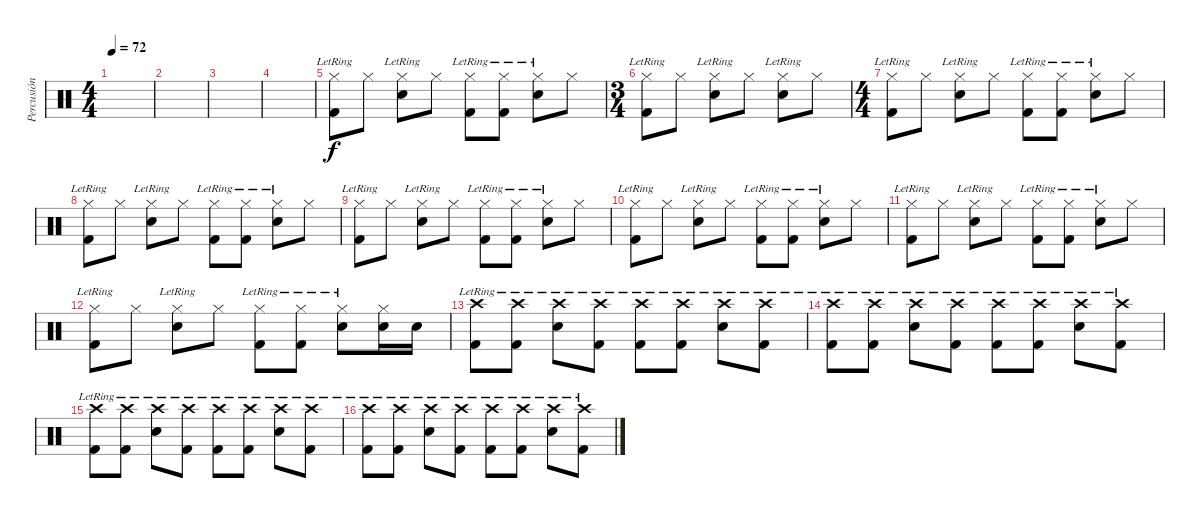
\track ("Percusión" "Percusión") {instrument percussion}
\staff {score}
\articulation defaults
\ts (4 4)
\tempo 72
\clef neutral
\ks c
|
|
|
|
("Hi-Hat (closed)" "Kick (hit) 2"{lr}).8 "Hi-Hat (closed)".8 ("Hi-Hat (closed)" "Electric Snare (hit)"{lr}).8 "Hi-Hat (closed)".8 ("Hi-Hat (closed)" "Kick (hit) 2"{lr}).8 ("Hi-Hat (closed)" "Kick (hit) 2"{lr}).8 ("Hi-Hat (closed)" "Electric Snare (hit)"{lr}).8 "Hi-Hat (closed)".8 |
\ts (3 4)
("Hi-Hat (closed)" "Kick (hit) 2"{lr}).8 "Hi-Hat (closed)".8 ("Hi-Hat (closed)" "Electric Snare (hit)"{lr}).8 "Hi-Hat (closed)".8 ("Hi-Hat (closed)" "Electric Snare (hit)"{lr}).8 "Hi-Hat (closed)".8 |
\ts (4 4)
("Hi-Hat (closed)" "Kick (hit) 2"{lr}).8 "Hi-Hat (closed)".8 ("Hi-Hat (closed)" "Electric Snare (hit)"{lr}).8 "Hi-Hat (closed)".8 ("Hi-Hat (closed)" "Kick (hit) 2"{lr}).8 ("Hi-Hat (closed)" "Kick (hit) 2"{lr}).8 ("Hi-Hat (closed)" "Electric Snare (hit)"{lr}).8 "Hi-Hat (closed)".8 |
("Hi-Hat (closed)" "Kick (hit) 2"{lr}).8 "Hi-Hat (closed)".8 ("Hi-Hat (closed)" "Electric Snare (hit)"{lr}).8 "Hi-Hat (closed)".8 ("Hi-Hat (closed)" "Kick (hit) 2"{lr}).8 ("Hi-Hat (closed)" "Kick (hit) 2"{lr}).8 ("Hi-Hat (closed)" "Electric Snare (hit)"{lr}).8 "Hi-Hat (closed)".8 |
("Hi-Hat (closed)" "Kick (hit) 2"{lr}).8 "Hi-Hat (closed)".8 ("Hi-Hat (closed)" "Electric Snare (hit)"{lr}).8 "Hi-Hat (closed)".8 ("Hi-Hat (closed)" "Kick (hit) 2"{lr}).8 ("Hi-Hat (closed)" "Kick (hit) 2"{lr}).8 ("Hi-Hat (closed)" "Electric Snare (hit)"{lr}).8 "Hi-Hat (closed)".8 |
("Hi-Hat (closed)" "Kick (hit) 2"{lr}).8 "Hi-Hat (closed)".8 ("Hi-Hat (closed)" "Electric Snare (hit)"{lr}).8 "Hi-Hat (closed)".8 ("Hi-Hat (closed)" "Kick (hit) 2"{lr}).8 ("Hi-Hat (closed)" "Kick (hit) 2"{lr}).8 ("Hi-Hat (closed)" "Electric Snare (hit)"{lr}).8 "Hi-Hat (closed)".8 |
("Hi-Hat (closed)" "Kick (hit) 2"{lr}).8 "Hi-Hat (closed)".8 ("Hi-Hat (closed)" "Electric Snare (hit)"{lr}).8 "Hi-Hat (closed)".8 ("Hi-Hat (closed)" "Kick (hit) 2"{lr}).8 ("Hi-Hat (closed)" "Kick (hit) 2"{lr}).8 ("Hi-Hat (closed)" "Electric Snare (hit)"{lr}).8 "Hi-Hat (closed)".8 |
("Hi-Hat (closed)" "Kick (hit) 2"{lr}).8 "Hi-Hat (closed)".8 ("Hi-Hat (closed)" "Electric Snare (hit)"{lr}).8 "Hi-Hat (closed)".8 ("Hi-Hat (closed)" "Kick (hit) 2"{lr}).8 ("Hi-Hat (closed)" "Kick (hit) 2"{lr}).8 ("Hi-Hat (closed)" "Electric Snare (hit)"{lr}).8 ("Hi-Hat (closed)" "Electric Snare (hit)").16 "Electric Snare (hit)".16 |
("Crash high (hit)"{lr} "Kick (hit) 2"{lr}).8 ("Crash high (hit)"{lr} "Kick (hit) 2"{lr}).8 ("Crash high (hit)"{lr} "Electric Snare (hit)"{lr}).8 ("Crash high (hit)"{lr} "Kick (hit) 2"{lr}).8 ("Crash high (hit)"{lr} "Kick (hit) 2"{lr}).8 ("Crash high (hit)"{lr} "Kick (hit) 2"{lr}).8 ("Crash high (hit)"{lr} "Electric Snare (hit)"{lr}).8 ("Crash high (hit)"{lr} "Kick (hit) 2"{lr}).8 |
("Crash high (hit)"{lr} "Kick (hit) 2"{lr}).8 ("Crash high (hit)"{lr} "Kick (hit) 2"{lr}).8 ("Crash high (hit)"{lr} "Electric Snare (hit)"{lr}).8 ("Crash high (hit)"{lr} "Kick (hit) 2"{lr}).8 ("Crash high (hit)"{lr} "Kick (hit) 2"{lr}).8 ("Crash high (hit)"{lr} "Kick (hit) 2"{lr}).8 ("Crash high (hit)"{lr} "Electric Snare (hit)"{lr}).8 ("Crash high (hit)"{lr} "Kick (hit) 2"{lr}).8 |
("Crash high (hit)"{lr} "Kick (hit) 2"{lr}).8 ("Crash high (hit)"{lr} "Kick (hit) 2"{lr}).8 ("Crash high (hit)"{lr} "Electric Snare (hit)"{lr}).8 ("Crash high (hit)"{lr} "Kick (hit) 2"{lr}).8 ("Crash high (hit)"{lr} "Kick (hit) 2"{lr}).8 ("Crash high (hit)"{lr} "Kick (hit) 2"{lr}).8 ("Crash high (hit)"{lr} "Electric Snare (hit)"{lr}).8 ("Crash high (hit)"{lr} "Kick (hit) 2"{lr}).8 |
("Crash high (hit)"{lr} "Kick (hit) 2"{lr}).8 ("Crash high (hit)"{lr} "Kick (hit) 2"{lr}).8 ("Crash high (hit)"{lr} "Electric Snare (hit)"{lr}).8 ("Crash high (hit)"{lr} "Kick (hit) 2"{lr}).8 ("Crash high (hit)"{lr} "Kick (hit) 2"{lr}).8 ("Crash high (hit)"{lr} "Kick (hit) 2"{lr}).8 ("Crash high (hit)"{lr} "Electric Snare (hit)"{lr}).8 ("Crash high (hit)"{lr} "Kick (hit) 2"{lr}).8
